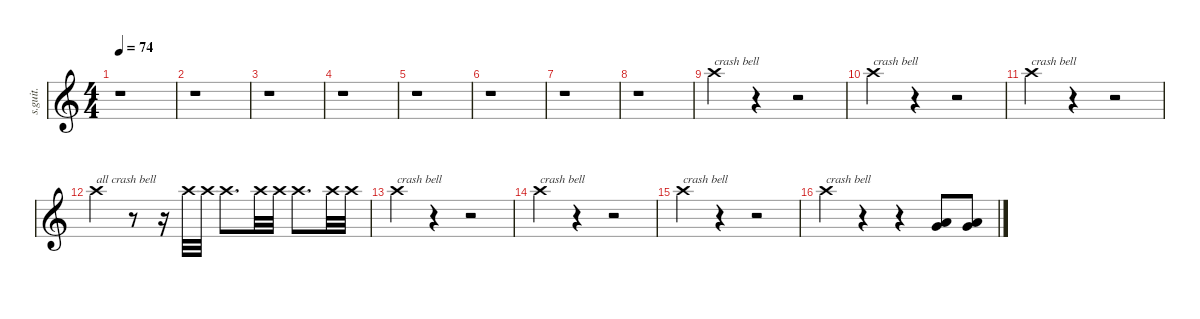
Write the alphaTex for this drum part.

\defaultSystemsLayout 4
\hideDynamics
\bracketExtendMode nobrackets
\track ("Don Henley - Drums" "s.guit.") {instrument percussion}
\staff {score}
\articulation defaults
\ts (4 4)
\beaming (8 2 2 2 2)
\tempo 74
\clef g2
\ks c
r.1{dy ppp} |
r.1 |
r.1 |
r.1 |
r.1 |
r.1 |
r.1 |
r.1 |
"Crash high (hit)".4{txt "crash bell" lyrics (0 "") lyrics (1 "") lyrics (2 "") lyrics (3 "") lyrics (4 "")} r.4 r.2 |
"Crash high (hit)".4{txt "crash bell" lyrics (0 "") lyrics (1 "") lyrics (2 "") lyrics (3 "") lyrics (4 "")} r.4 r.2 |
"Crash high (hit)".4{txt "crash bell" lyrics (0 "") lyrics (1 "") lyrics (2 "") lyrics (3 "") lyrics (4 "")} r.4 r.2 |
"Crash high (hit)".4{txt "all crash bell" lyrics (0 "") lyrics (1 "") lyrics (2 "") lyrics (3 "") lyrics (4 "")} r.8 r.16 "Crash high (hit)".32{lyrics (0 "") lyrics (1 "") lyrics (2 "") lyrics (3 "") lyrics (4 "")} "Crash high (hit)".32{lyrics (0 "") lyrics (1 "") lyrics (2 "") lyrics (3 "") lyrics (4 "")} "Crash high (hit)".8{d lyrics (0 "") lyrics (1 "") lyrics (2 "") lyrics (3 "") lyrics (4 "")} "Crash high (hit)".32{lyrics (0 "") lyrics (1 "") lyrics (2 "") lyrics (3 "") lyrics (4 "")} "Crash high (hit)".32{lyrics (0 "") lyrics (1 "") lyrics (2 "") lyrics (3 "") lyrics (4 "")} "Crash high (hit)".8{d lyrics (0 "") lyrics (1 "") lyrics (2 "") lyrics (3 "") lyrics (4 "")} "Crash high (hit)".32{lyrics (0 "") lyrics (1 "") lyrics (2 "") lyrics (3 "") lyrics (4 "")} "Crash high (hit)".32{lyrics (0 "") lyrics (1 "") lyrics (2 "") lyrics (3 "") lyrics (4 "")} |
"Crash high (hit)".4{txt "crash bell" lyrics (0 "") lyrics (1 "") lyrics (2 "") lyrics (3 "") lyrics (4 "")} r.4 r.2 |
"Crash high (hit)".4{txt "crash bell" lyrics (0 "") lyrics (1 "") lyrics (2 "") lyrics (3 "") lyrics (4 "")} r.4 r.2 |
"Crash high (hit)".4{txt "crash bell" lyrics (0 "") lyrics (1 "") lyrics (2 "") lyrics (3 "") lyrics (4 "")} r.4 r.2 |
"Crash high (hit)".4{txt "crash bell" lyrics (0 "") lyrics (1 "") lyrics (2 "") lyrics (3 "") lyrics (4 "")} r.4 r.4 ("Very Low Tom (hit)" "Low Floor Tom (hit)").8{lyrics (0 "") lyrics (1 "") lyrics (2 "") lyrics (3 "") lyrics (4 "") dy f} ("Very Low Tom (hit)" "Low Floor Tom (hit)").8{lyrics (0 "") lyrics (1 "") lyrics (2 "") lyrics (3 "") lyrics (4 "")}
